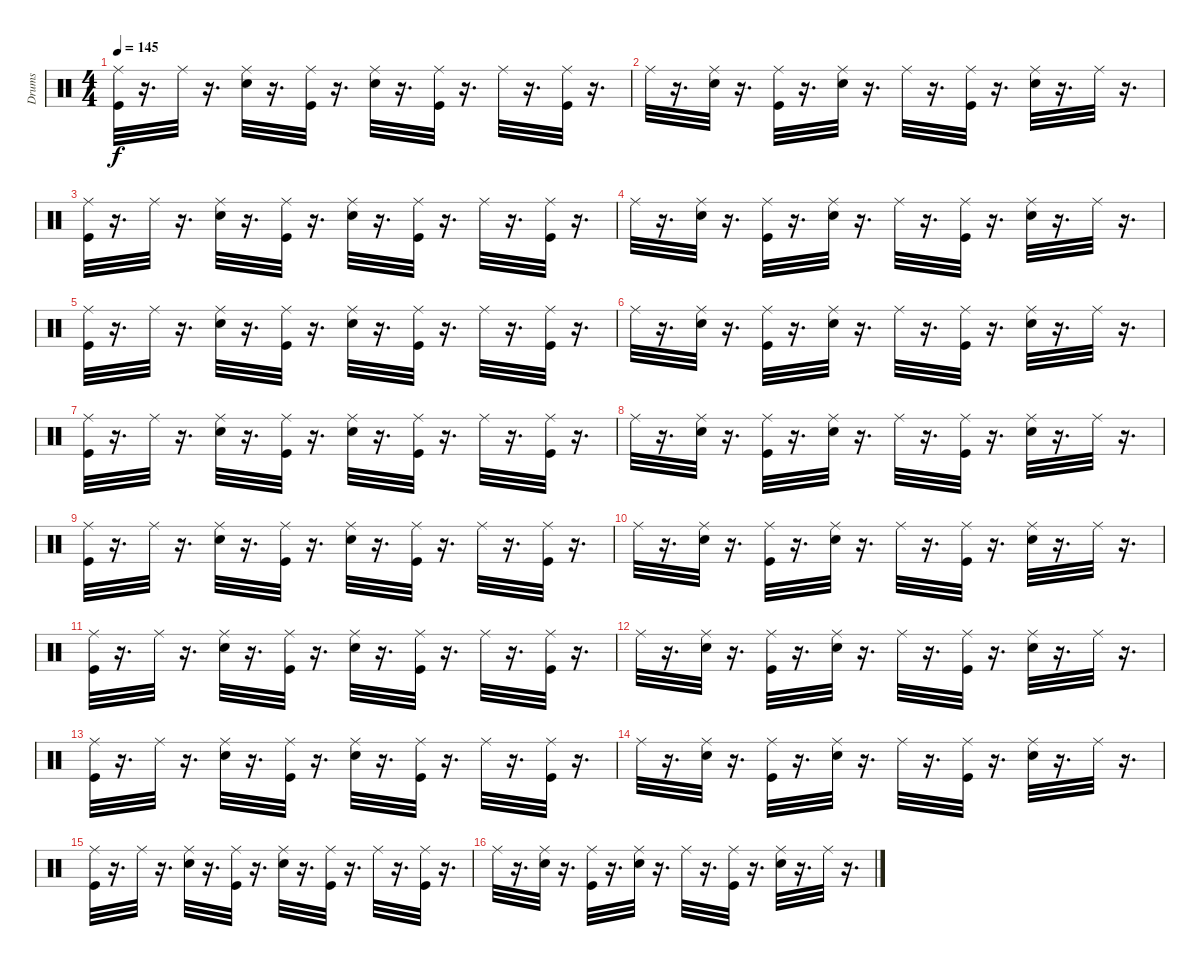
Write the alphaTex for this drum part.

\track ("Drums" "Drums") {instrument percussion}
\staff {score}
\articulation defaults
\ts (4 4)
\tempo 145
\clef neutral
\ks c
("Ride (middle)" "Kick (hit)").32{dy f} r.16{d} "Ride (middle)".32 r.16{d} ("Snare (hit) 2" "Ride (middle)").32 r.16{d} ("Ride (middle)" "Kick (hit)").32 r.16{d} ("Snare (hit) 2" "Ride (middle)").32 r.16{d} ("Kick (hit)" "Ride (middle)").32 r.16{d} "Ride (middle)".32 r.16{d} ("Ride (middle)" "Kick (hit)").32 r.16{d} |
"Ride (middle)".32 r.16{d} ("Ride (middle)" "Snare (hit) 2").32 r.16{d} ("Ride (middle)" "Kick (hit)").32 r.16{d} ("Ride (middle)" "Snare (hit) 2").32 r.16{d} "Ride (middle)".32 r.16{d} ("Ride (middle)" "Kick (hit)").32 r.16{d} ("Ride (middle)" "Snare (hit) 2").32 r.16{d} "Ride (middle)".32 r.16{d} |
("Ride (middle)" "Kick (hit)").32 r.16{d} "Ride (middle)".32 r.16{d} ("Snare (hit) 2" "Ride (middle)").32 r.16{d} ("Ride (middle)" "Kick (hit)").32 r.16{d} ("Snare (hit) 2" "Ride (middle)").32 r.16{d} ("Kick (hit)" "Ride (middle)").32 r.16{d} "Ride (middle)".32 r.16{d} ("Ride (middle)" "Kick (hit)").32 r.16{d} |
"Ride (middle)".32 r.16{d} ("Ride (middle)" "Snare (hit) 2").32 r.16{d} ("Ride (middle)" "Kick (hit)").32 r.16{d} ("Ride (middle)" "Snare (hit) 2").32 r.16{d} "Ride (middle)".32 r.16{d} ("Ride (middle)" "Kick (hit)").32 r.16{d} ("Ride (middle)" "Snare (hit) 2").32 r.16{d} "Ride (middle)".32 r.16{d} |
("Kick (hit)" "Ride (middle)").32 r.16{d} "Ride (middle)".32 r.16{d} ("Snare (hit) 2" "Ride (middle)").32 r.16{d} ("Ride (middle)" "Kick (hit)").32 r.16{d} ("Snare (hit) 2" "Ride (middle)").32 r.16{d} ("Kick (hit)" "Ride (middle)").32 r.16{d} "Ride (middle)".32 r.16{d} ("Ride (middle)" "Kick (hit)").32 r.16{d} |
"Ride (middle)".32 r.16{d} ("Ride (middle)" "Snare (hit) 2").32 r.16{d} ("Ride (middle)" "Kick (hit)").32 r.16{d} ("Ride (middle)" "Snare (hit) 2").32 r.16{d} "Ride (middle)".32 r.16{d} ("Ride (middle)" "Kick (hit)").32 r.16{d} ("Ride (middle)" "Snare (hit) 2").32 r.16{d} "Ride (middle)".32 r.16{d} |
("Kick (hit)" "Ride (middle)").32 r.16{d} "Ride (middle)".32 r.16{d} ("Snare (hit) 2" "Ride (middle)").32 r.16{d} ("Ride (middle)" "Kick (hit)").32 r.16{d} ("Snare (hit) 2" "Ride (middle)").32 r.16{d} ("Kick (hit)" "Ride (middle)").32 r.16{d} "Ride (middle)".32 r.16{d} ("Ride (middle)" "Kick (hit)").32 r.16{d} |
"Ride (middle)".32 r.16{d} ("Ride (middle)" "Snare (hit) 2").32 r.16{d} ("Ride (middle)" "Kick (hit)").32 r.16{d} ("Ride (middle)" "Snare (hit) 2").32 r.16{d} "Ride (middle)".32 r.16{d} ("Ride (middle)" "Kick (hit)").32 r.16{d} ("Ride (middle)" "Snare (hit) 2").32 r.16{d} "Ride (middle)".32 r.16{d} |
("Kick (hit)" "Ride (middle)").32 r.16{d} "Ride (middle)".32 r.16{d} ("Snare (hit) 2" "Ride (middle)").32 r.16{d} ("Ride (middle)" "Kick (hit)").32 r.16{d} ("Snare (hit) 2" "Ride (middle)").32 r.16{d} ("Kick (hit)" "Ride (middle)").32 r.16{d} "Ride (middle)".32 r.16{d} ("Ride (middle)" "Kick (hit)").32 r.16{d} |
"Ride (middle)".32 r.16{d} ("Ride (middle)" "Snare (hit) 2").32 r.16{d} ("Ride (middle)" "Kick (hit)").32 r.16{d} ("Ride (middle)" "Snare (hit) 2").32 r.16{d} "Ride (middle)".32 r.16{d} ("Ride (middle)" "Kick (hit)").32 r.16{d} ("Ride (middle)" "Snare (hit) 2").32 r.16{d} "Ride (middle)".32 r.16{d} |
("Kick (hit)" "Ride (middle)").32 r.16{d} "Ride (middle)".32 r.16{d} ("Snare (hit) 2" "Ride (middle)").32 r.16{d} ("Ride (middle)" "Kick (hit)").32 r.16{d} ("Snare (hit) 2" "Ride (middle)").32 r.16{d} ("Kick (hit)" "Ride (middle)").32 r.16{d} "Ride (middle)".32 r.16{d} ("Ride (middle)" "Kick (hit)").32 r.16{d} |
"Ride (middle)".32 r.16{d} ("Ride (middle)" "Snare (hit) 2").32 r.16{d} ("Ride (middle)" "Kick (hit)").32 r.16{d} ("Ride (middle)" "Snare (hit) 2").32 r.16{d} "Ride (middle)".32 r.16{d} ("Ride (middle)" "Kick (hit)").32 r.16{d} ("Ride (middle)" "Snare (hit) 2").32 r.16{d} "Ride (middle)".32 r.16{d} |
("Kick (hit)" "Ride (middle)").32 r.16{d} "Ride (middle)".32 r.16{d} ("Snare (hit) 2" "Ride (middle)").32 r.16{d} ("Ride (middle)" "Kick (hit)").32 r.16{d} ("Snare (hit) 2" "Ride (middle)").32 r.16{d} ("Kick (hit)" "Ride (middle)").32 r.16{d} "Ride (middle)".32 r.16{d} ("Ride (middle)" "Kick (hit)").32 r.16{d} |
"Ride (middle)".32 r.16{d} ("Ride (middle)" "Snare (hit) 2").32 r.16{d} ("Ride (middle)" "Kick (hit)").32 r.16{d} ("Ride (middle)" "Snare (hit) 2").32 r.16{d} "Ride (middle)".32 r.16{d} ("Ride (middle)" "Kick (hit)").32 r.16{d} ("Ride (middle)" "Snare (hit) 2").32 r.16{d} "Ride (middle)".32 r.16{d} |
("Kick (hit)" "Ride (middle)").32 r.16{d} "Ride (middle)".32 r.16{d} ("Snare (hit) 2" "Ride (middle)").32 r.16{d} ("Ride (middle)" "Kick (hit)").32 r.16{d} ("Snare (hit) 2" "Ride (middle)").32 r.16{d} ("Kick (hit)" "Ride (middle)").32 r.16{d} "Ride (middle)".32 r.16{d} ("Ride (middle)" "Kick (hit)").32 r.16{d} |
"Ride (middle)".32 r.16{d} ("Ride (middle)" "Snare (hit) 2").32 r.16{d} ("Ride (middle)" "Kick (hit)").32 r.16{d} ("Ride (middle)" "Snare (hit) 2").32 r.16{d} "Ride (middle)".32 r.16{d} ("Ride (middle)" "Kick (hit)").32 r.16{d} ("Ride (middle)" "Snare (hit) 2").32 r.16{d} "Ride (middle)".32 r.16{d}
